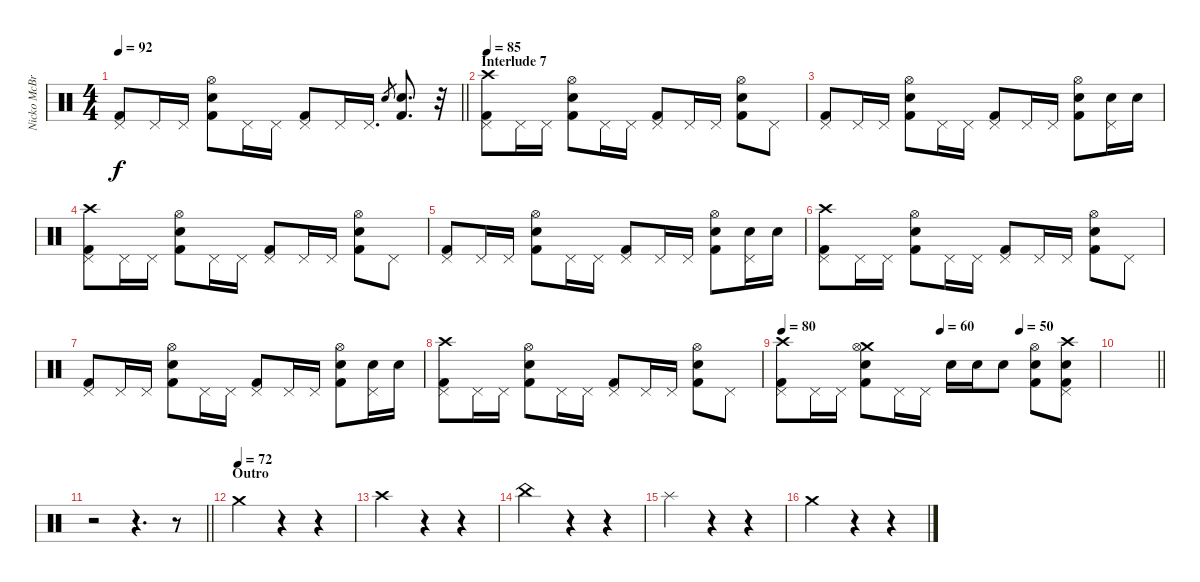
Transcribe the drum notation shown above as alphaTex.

\track ("Nicko McBrain" "Nicko McBr") {instrument percussion}
\staff {score}
\articulation defaults
\ts (4 4)
\tempo 92
\clef neutral
\barLineRight lightlight
\ks c
("Pedal Hi-Hat (hit)" "Kick (hit) 2").8{dy f} "Pedal Hi-Hat (hit)".16 "Pedal Hi-Hat (hit)".16 ("Electric Snare (hit)" "Hi-Hat (open)" "Kick (hit) 2").8 "Pedal Hi-Hat (hit)".16 "Pedal Hi-Hat (hit)".16 ("Pedal Hi-Hat (hit)" "Kick (hit) 2").8 "Pedal Hi-Hat (hit)".16 "Pedal Hi-Hat (hit)".16{d} "Electric Snare (hit)".8{gr} ("Electric Snare (hit)" "Kick (hit) 2").8{d} r.32 |
\section ("" "Interlude 7")
\tempo 85
("Pedal Hi-Hat (hit)" "Crash high (hit)" "Kick (hit) 2").8 "Pedal Hi-Hat (hit)".16 "Pedal Hi-Hat (hit)".16 ("Electric Snare (hit)" "Hi-Hat (open)" "Kick (hit) 2").8 "Pedal Hi-Hat (hit)".16 "Pedal Hi-Hat (hit)".16 ("Pedal Hi-Hat (hit)" "Kick (hit) 2").8 "Pedal Hi-Hat (hit)".16 "Pedal Hi-Hat (hit)".16 ("Electric Snare (hit)" "Hi-Hat (open)" "Kick (hit) 2").8 "Pedal Hi-Hat (hit)".8 |
("Pedal Hi-Hat (hit)" "Kick (hit) 2").8 "Pedal Hi-Hat (hit)".16 "Pedal Hi-Hat (hit)".16 ("Electric Snare (hit)" "Hi-Hat (open)" "Kick (hit) 2").8 "Pedal Hi-Hat (hit)".16 "Pedal Hi-Hat (hit)".16 ("Pedal Hi-Hat (hit)" "Kick (hit) 2").8 "Pedal Hi-Hat (hit)".16 "Pedal Hi-Hat (hit)".16 ("Electric Snare (hit)" "Hi-Hat (open)" "Kick (hit) 2").8 ("Pedal Hi-Hat (hit)" "Electric Snare (hit)").16 "Electric Snare (hit)".16 |
("Pedal Hi-Hat (hit)" "Crash high (hit)" "Kick (hit) 2").8 "Pedal Hi-Hat (hit)".16 "Pedal Hi-Hat (hit)".16 ("Electric Snare (hit)" "Hi-Hat (open)" "Kick (hit) 2").8 "Pedal Hi-Hat (hit)".16 "Pedal Hi-Hat (hit)".16 ("Pedal Hi-Hat (hit)" "Kick (hit) 2").8 "Pedal Hi-Hat (hit)".16 "Pedal Hi-Hat (hit)".16 ("Electric Snare (hit)" "Hi-Hat (open)" "Kick (hit) 2").8 "Pedal Hi-Hat (hit)".8 |
("Pedal Hi-Hat (hit)" "Kick (hit) 2").8 "Pedal Hi-Hat (hit)".16 "Pedal Hi-Hat (hit)".16 ("Electric Snare (hit)" "Hi-Hat (open)" "Kick (hit) 2").8 "Pedal Hi-Hat (hit)".16 "Pedal Hi-Hat (hit)".16 ("Pedal Hi-Hat (hit)" "Kick (hit) 2").8 "Pedal Hi-Hat (hit)".16 "Pedal Hi-Hat (hit)".16 ("Electric Snare (hit)" "Hi-Hat (open)" "Kick (hit) 2").8 ("Pedal Hi-Hat (hit)" "Electric Snare (hit)").16 "Electric Snare (hit)".16 |
("Pedal Hi-Hat (hit)" "Crash high (hit)" "Kick (hit) 2").8 "Pedal Hi-Hat (hit)".16 "Pedal Hi-Hat (hit)".16 ("Electric Snare (hit)" "Hi-Hat (open)" "Kick (hit) 2").8 "Pedal Hi-Hat (hit)".16 "Pedal Hi-Hat (hit)".16 ("Pedal Hi-Hat (hit)" "Kick (hit) 2").8 "Pedal Hi-Hat (hit)".16 "Pedal Hi-Hat (hit)".16 ("Electric Snare (hit)" "Hi-Hat (open)" "Kick (hit) 2").8 "Pedal Hi-Hat (hit)".8 |
("Pedal Hi-Hat (hit)" "Kick (hit) 2").8 "Pedal Hi-Hat (hit)".16 "Pedal Hi-Hat (hit)".16 ("Electric Snare (hit)" "Hi-Hat (open)" "Kick (hit) 2").8 "Pedal Hi-Hat (hit)".16 "Pedal Hi-Hat (hit)".16 ("Pedal Hi-Hat (hit)" "Kick (hit) 2").8 "Pedal Hi-Hat (hit)".16 "Pedal Hi-Hat (hit)".16 ("Electric Snare (hit)" "Hi-Hat (open)" "Kick (hit) 2").8 ("Pedal Hi-Hat (hit)" "Electric Snare (hit)").16 "Electric Snare (hit)".16 |
("Pedal Hi-Hat (hit)" "Crash high (hit)" "Kick (hit) 2").8 "Pedal Hi-Hat (hit)".16 "Pedal Hi-Hat (hit)".16 ("Electric Snare (hit)" "Hi-Hat (open)" "Kick (hit) 2").8 "Pedal Hi-Hat (hit)".16 "Pedal Hi-Hat (hit)".16 ("Pedal Hi-Hat (hit)" "Kick (hit) 2").8 "Pedal Hi-Hat (hit)".16 "Pedal Hi-Hat (hit)".16 ("Electric Snare (hit)" "Hi-Hat (open)" "Kick (hit) 2").8 "Pedal Hi-Hat (hit)".8 |
\tempo 80
\tempo (60 0.5)
\tempo (50 0.75)
("Pedal Hi-Hat (hit)" "Crash high (hit)" "Kick (hit) 2").8 "Pedal Hi-Hat (hit)".16 "Pedal Hi-Hat (hit)".16 ("Crash medium (hit)" "Electric Snare (hit)" "Hi-Hat (open)" "Kick (hit) 2").8 "Pedal Hi-Hat (hit)".16 "Pedal Hi-Hat (hit)".16 "Electric Snare (hit)".16 "Electric Snare (hit)".16 "Electric Snare (hit)".8 ("Electric Snare (hit)" "Hi-Hat (open)" "Kick (hit) 2").8 ("Crash high (hit)" "Pedal Hi-Hat (hit)" "Electric Snare (hit)" "Kick (hit) 2").8 |
\barLineRight lightlight
|
\barLineRight lightlight
r.2{volume 8} r.4{d} r.8{volume 0} |
\section ("" "Outro")
\tempo (72)
"Crash medium (hit)".2{volume 16} r.4 r.4{volume 0} |
"Crash high (hit)".2{volume 16} r.4 r.4{volume 0} |
"China (hit)".2{volume 16} r.4 r.4{volume 0} |
"Splash (hit)".2{volume 16} r.4 r.4{volume 0} |
"Crash medium (hit)".2{volume 16} r.4 r.4{volume 0}
